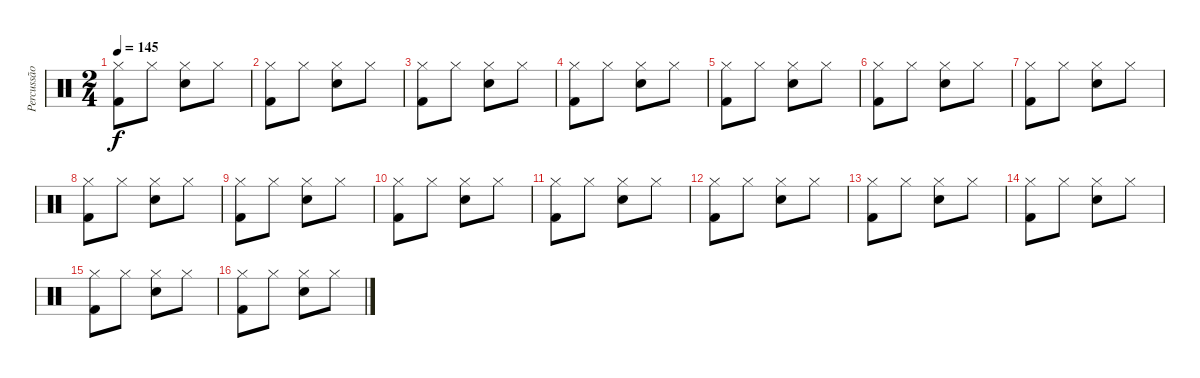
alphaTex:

\track ("Percussão" "Percussão") {instrument percussion}
\staff {score}
\articulation defaults
\ts (2 4)
\tempo 145
\clef neutral
\ks c
("Hi-Hat (closed)" "Kick (hit) 2").8{dy f} "Hi-Hat (closed)".8 ("Hi-Hat (closed)" "Snare (hit) 2").8 "Hi-Hat (closed)".8 |
("Hi-Hat (closed)" "Kick (hit) 2").8 "Hi-Hat (closed)".8 ("Hi-Hat (closed)" "Snare (hit) 2").8 "Hi-Hat (closed)".8 |
("Hi-Hat (closed)" "Kick (hit) 2").8 "Hi-Hat (closed)".8 ("Hi-Hat (closed)" "Snare (hit) 2").8 "Hi-Hat (closed)".8 |
("Hi-Hat (closed)" "Kick (hit) 2").8 "Hi-Hat (closed)".8 ("Hi-Hat (closed)" "Snare (hit) 2").8 "Hi-Hat (closed)".8 |
("Hi-Hat (closed)" "Kick (hit) 2").8 "Hi-Hat (closed)".8 ("Hi-Hat (closed)" "Snare (hit) 2").8 "Hi-Hat (closed)".8 |
("Hi-Hat (closed)" "Kick (hit) 2").8 "Hi-Hat (closed)".8 ("Hi-Hat (closed)" "Snare (hit) 2").8 "Hi-Hat (closed)".8 |
("Hi-Hat (closed)" "Kick (hit) 2").8 "Hi-Hat (closed)".8 ("Hi-Hat (closed)" "Snare (hit) 2").8 "Hi-Hat (closed)".8 |
("Hi-Hat (closed)" "Kick (hit) 2").8 "Hi-Hat (closed)".8 ("Hi-Hat (closed)" "Snare (hit) 2").8 "Hi-Hat (closed)".8 |
("Hi-Hat (closed)" "Kick (hit) 2").8 "Hi-Hat (closed)".8 ("Hi-Hat (closed)" "Snare (hit) 2").8 "Hi-Hat (closed)".8 |
("Hi-Hat (closed)" "Kick (hit) 2").8 "Hi-Hat (closed)".8 ("Hi-Hat (closed)" "Snare (hit) 2").8 "Hi-Hat (closed)".8 |
("Hi-Hat (closed)" "Kick (hit) 2").8 "Hi-Hat (closed)".8 ("Hi-Hat (closed)" "Snare (hit) 2").8 "Hi-Hat (closed)".8 |
("Hi-Hat (closed)" "Kick (hit) 2").8 "Hi-Hat (closed)".8 ("Hi-Hat (closed)" "Snare (hit) 2").8 "Hi-Hat (closed)".8 |
("Hi-Hat (closed)" "Kick (hit) 2").8 "Hi-Hat (closed)".8 ("Hi-Hat (closed)" "Snare (hit) 2").8 "Hi-Hat (closed)".8 |
("Hi-Hat (closed)" "Kick (hit) 2").8 "Hi-Hat (closed)".8 ("Hi-Hat (closed)" "Snare (hit) 2").8 "Hi-Hat (closed)".8 |
("Hi-Hat (closed)" "Kick (hit) 2").8 "Hi-Hat (closed)".8 ("Hi-Hat (closed)" "Snare (hit) 2").8 "Hi-Hat (closed)".8 |
("Hi-Hat (closed)" "Kick (hit) 2").8 "Hi-Hat (closed)".8 ("Hi-Hat (closed)" "Snare (hit) 2").8 "Hi-Hat (closed)".8
